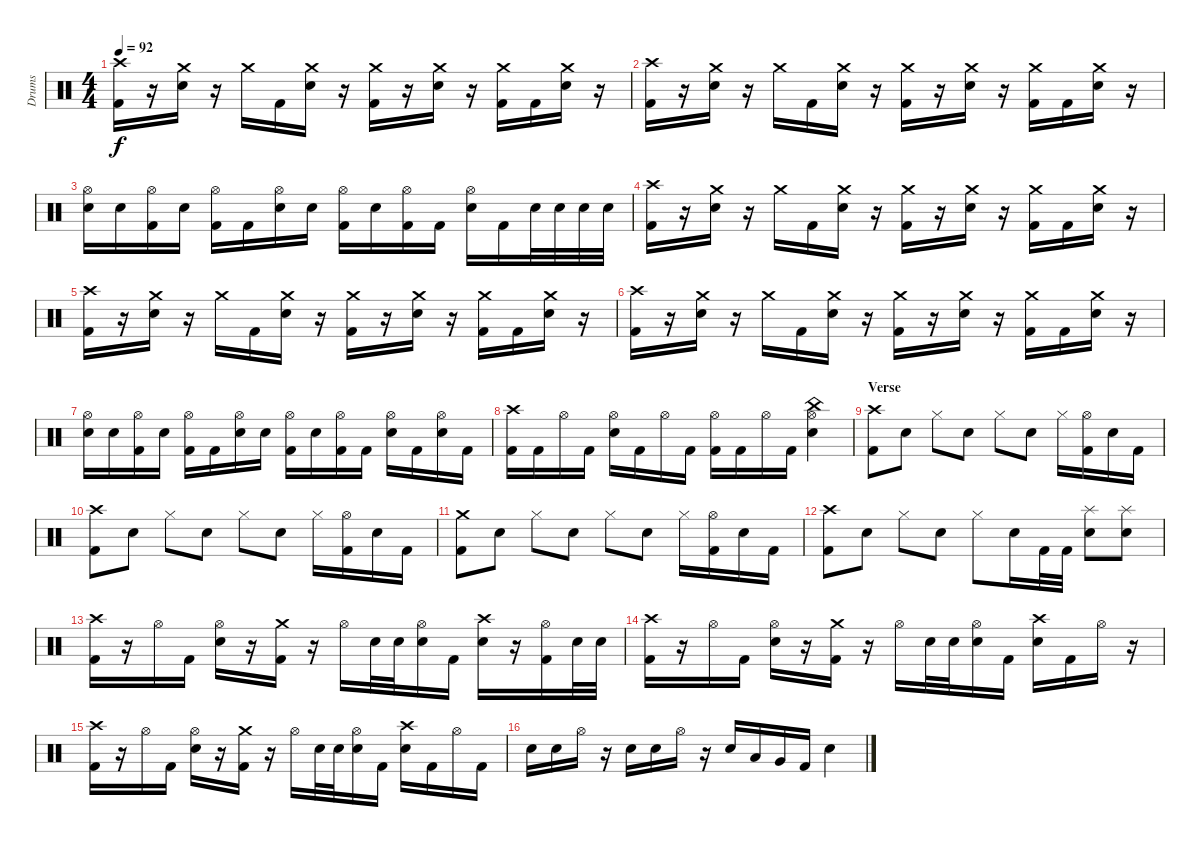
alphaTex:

\track ("Drums" "Drums") {instrument percussion}
\staff {score}
\articulation defaults
\ts (4 4)
\tempo 92
\clef neutral
\ks c
("Crash high (hit)" "Kick (hit) 2").16{dy f} r.16 ("Crash medium (hit)" "Electric Snare (hit)").16 r.16 "Crash medium (hit)".16 "Kick (hit) 2".16 ("Crash medium (hit)" "Electric Snare (hit)").16 r.16 ("Crash medium (hit)" "Kick (hit) 2").16 r.16 ("Crash medium (hit)" "Electric Snare (hit)").16 r.16 ("Crash medium (hit)" "Kick (hit) 2").16 "Kick (hit) 2".16 ("Crash medium (hit)" "Electric Snare (hit)").16 r.16 |
("Crash high (hit)" "Kick (hit) 2").16 r.16 ("Crash medium (hit)" "Electric Snare (hit)").16 r.16 "Crash medium (hit)".16 "Kick (hit) 2".16 ("Crash medium (hit)" "Electric Snare (hit)").16 r.16 ("Crash medium (hit)" "Kick (hit) 2").16 r.16 ("Crash medium (hit)" "Electric Snare (hit)").16 r.16 ("Crash medium (hit)" "Kick (hit) 2").16 "Kick (hit) 2".16 ("Crash medium (hit)" "Electric Snare (hit)").16 r.16 |
("Hi-Hat (open)" "Electric Snare (hit)").16 "Electric Snare (hit)".16 ("Hi-Hat (open)" "Kick (hit) 2").16 "Electric Snare (hit)".16 ("Hi-Hat (open)" "Kick (hit) 2").16 "Kick (hit) 2".16 ("Hi-Hat (open)" "Electric Snare (hit)").16 "Electric Snare (hit)".16 ("Hi-Hat (open)" "Kick (hit) 2").16 "Electric Snare (hit)".16 ("Hi-Hat (open)" "Kick (hit) 2").16 "Kick (hit) 2".16 ("Hi-Hat (open)" "Electric Snare (hit)").16 "Kick (hit) 2".16 "Electric Snare (hit)".32 "Electric Snare (hit)".32 "Electric Snare (hit)".32 "Electric Snare (hit)".32 |
("Crash high (hit)" "Kick (hit) 2").16 r.16 ("Crash medium (hit)" "Electric Snare (hit)").16 r.16 "Crash medium (hit)".16 "Kick (hit) 2".16 ("Crash medium (hit)" "Electric Snare (hit)").16 r.16 ("Crash medium (hit)" "Kick (hit) 2").16 r.16 ("Crash medium (hit)" "Electric Snare (hit)").16 r.16 ("Crash medium (hit)" "Kick (hit) 2").16 "Kick (hit) 2".16 ("Crash medium (hit)" "Electric Snare (hit)").16 r.16 |
("Crash high (hit)" "Kick (hit) 2").16 r.16 ("Crash medium (hit)" "Electric Snare (hit)").16 r.16 "Crash medium (hit)".16 "Kick (hit) 2".16 ("Crash medium (hit)" "Electric Snare (hit)").16 r.16 ("Crash medium (hit)" "Kick (hit) 2").16 r.16 ("Crash medium (hit)" "Electric Snare (hit)").16 r.16 ("Crash medium (hit)" "Kick (hit) 2").16 "Kick (hit) 2".16 ("Crash medium (hit)" "Electric Snare (hit)").16 r.16 |
("Crash high (hit)" "Kick (hit) 2").16 r.16 ("Crash medium (hit)" "Electric Snare (hit)").16 r.16 "Crash medium (hit)".16 "Kick (hit) 2".16 ("Crash medium (hit)" "Electric Snare (hit)").16 r.16 ("Crash medium (hit)" "Kick (hit) 2").16 r.16 ("Crash medium (hit)" "Electric Snare (hit)").16 r.16 ("Crash medium (hit)" "Kick (hit) 2").16 "Kick (hit) 2".16 ("Crash medium (hit)" "Electric Snare (hit)").16 r.16 |
("Hi-Hat (open)" "Electric Snare (hit)").16 "Electric Snare (hit)".16 ("Hi-Hat (open)" "Kick (hit) 2").16 "Electric Snare (hit)".16 ("Hi-Hat (open)" "Kick (hit) 2").16 "Kick (hit) 2".16 ("Hi-Hat (open)" "Electric Snare (hit)").16 "Electric Snare (hit)".16 ("Hi-Hat (open)" "Kick (hit) 2").16 "Electric Snare (hit)".16 ("Hi-Hat (open)" "Kick (hit) 2").16 "Kick (hit) 2".16 ("Hi-Hat (open)" "Electric Snare (hit)").16 "Kick (hit) 2".16 ("Hi-Hat (open)" "Electric Snare (hit)").16 "Kick (hit) 2".16 |
("Crash high (hit)" "Kick (hit) 2").16 "Kick (hit) 2".16 "Hi-Hat (open)".16 "Kick (hit) 2".16 ("Hi-Hat (open)" "Electric Snare (hit)").16 "Kick (hit) 2".16 "Hi-Hat (open)".16 "Kick (hit) 2".16 ("Hi-Hat (open)" "Kick (hit) 2").16 "Kick (hit) 2".16 "Hi-Hat (open)".16 "Kick (hit) 2".16 ("China (hit)" "Hi-Hat (open)" "Electric Snare (hit)").4 |
\section ("" "Verse")
("Crash high (hit)" "Kick (hit) 2").8 "Electric Snare (hit)".8 "Hi-Hat (closed)".8 "Electric Snare (hit)".8 "Hi-Hat (closed)".8 "Electric Snare (hit)".8 "Hi-Hat (closed)".16 ("Hi-Hat (open)" "Kick (hit) 2").16 "Electric Snare (hit)".16 "Kick (hit) 2".16 |
("Crash high (hit)" "Kick (hit) 2").8 "Electric Snare (hit)".8 "Hi-Hat (closed)".8 "Electric Snare (hit)".8 "Hi-Hat (closed)".8 "Electric Snare (hit)".8 "Hi-Hat (closed)".16 ("Hi-Hat (open)" "Kick (hit) 2").16 "Electric Snare (hit)".16 "Kick (hit) 2".16 |
("Crash medium (hit)" "Kick (hit) 2").8 "Electric Snare (hit)".8 "Hi-Hat (closed)".8 "Electric Snare (hit)".8 "Hi-Hat (closed)".8 "Electric Snare (hit)".8 "Hi-Hat (closed)".16 ("Hi-Hat (open)" "Kick (hit) 2").16 "Electric Snare (hit)".16 "Kick (hit) 2".16 |
("Crash high (hit)" "Kick (hit) 2").8 "Electric Snare (hit)".8 "Hi-Hat (closed)".8 "Electric Snare (hit)".8 "Hi-Hat (closed)".8 "Electric Snare (hit)".16 "Kick (hit) 2".32 "Kick (hit) 2".32 ("Splash (hit)" "Electric Snare (hit)").8 ("Splash (hit)" "Electric Snare (hit)").8 |
("Crash high (hit)" "Kick (hit) 2").16 r.16 "Hi-Hat (open)".16 "Kick (hit) 2".16 ("Hi-Hat (open)" "Electric Snare (hit)").16 r.16 ("Crash medium (hit)" "Kick (hit) 2").16 r.16 "Hi-Hat (open)".16 "Electric Snare (hit)".32 "Electric Snare (hit)".32 ("Hi-Hat (open)" "Electric Snare (hit)").16 "Kick (hit) 2".16 ("Crash high (hit)" "Electric Snare (hit)").16 r.16 ("Hi-Hat (open)" "Kick (hit) 2").16 "Electric Snare (hit)".32 "Electric Snare (hit)".32 |
("Crash high (hit)" "Kick (hit) 2").16 r.16 "Hi-Hat (open)".16 "Kick (hit) 2".16 ("Hi-Hat (open)" "Electric Snare (hit)").16 r.16 ("Crash medium (hit)" "Kick (hit) 2").16 r.16 "Hi-Hat (open)".16 "Electric Snare (hit)".32 "Electric Snare (hit)".32 ("Hi-Hat (open)" "Electric Snare (hit)").16 "Kick (hit) 2".16 ("Crash high (hit)" "Electric Snare (hit)").16 "Kick (hit) 2".16 "Hi-Hat (open)".16 r.16 |
("Crash high (hit)" "Kick (hit) 2").16 r.16 "Hi-Hat (open)".16 "Kick (hit) 2".16 ("Hi-Hat (open)" "Electric Snare (hit)").16 r.16 ("Crash medium (hit)" "Kick (hit) 2").16 r.16 "Hi-Hat (open)".16 "Electric Snare (hit)".32 "Electric Snare (hit)".32 ("Hi-Hat (open)" "Electric Snare (hit)").16 "Kick (hit) 2".16 ("Crash high (hit)" "Electric Snare (hit)").16 "Kick (hit) 2".16 "Hi-Hat (open)".16 "Kick (hit) 2".16 |
"Electric Snare (hit)".16 "Electric Snare (hit)".16 "Hi-Hat (open)".16 r.16 "Electric Snare (hit)".16 "Electric Snare (hit)".16 "Hi-Hat (open)".16 r.16 "Electric Snare (hit)".16 "Low Tom (hit)".16 "Very Low Tom (hit)".16 "Kick (hit) 2".16 "Electric Snare (hit)".4
